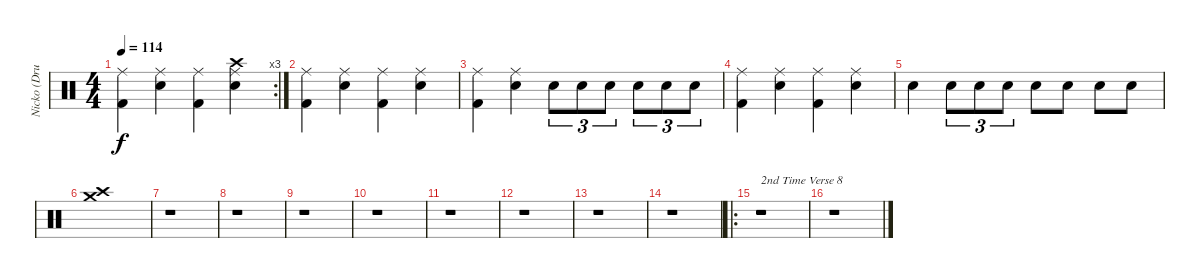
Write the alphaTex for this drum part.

\track ("Nicko (Drums)" "Nicko (Dru") {instrument percussion}
\staff {score}
\articulation defaults
\rc 3
\ts (4 4)
\tempo 114
\clef neutral
\ks c
("Ride (middle)" "Kick (hit) 2").4{dy f} ("Ride (middle)" "Snare (hit) 2").4 ("Ride (middle)" "Kick (hit) 2").4 ("Ride (middle)" "Snare (hit) 2" "Crash high (hit)").4 |
("Ride (middle)" "Kick (hit) 2").4 ("Ride (middle)" "Snare (hit) 2").4 ("Ride (middle)" "Kick (hit) 2").4 ("Ride (middle)" "Snare (hit) 2").4 |
("Ride (middle)" "Kick (hit) 2").4 ("Ride (middle)" "Snare (hit) 2").4 "Snare (hit) 2".8{tu (3 2)} "Snare (hit) 2".8{tu (3 2)} "Snare (hit) 2".8{tu (3 2)} "Snare (hit) 2".8{tu (3 2)} "Snare (hit) 2".8{tu (3 2)} "Snare (hit) 2".8{tu (3 2)} |
("Ride (middle)" "Kick (hit) 2").4 ("Ride (middle)" "Snare (hit) 2").4 ("Ride (middle)" "Kick (hit) 2").4 ("Ride (middle)" "Snare (hit) 2").4 |
"Snare (hit) 2".4 "Snare (hit) 2".8{tu (3 2)} "Snare (hit) 2".8{tu (3 2)} "Snare (hit) 2".8{tu (3 2)} "Snare (hit) 2".8 "Snare (hit) 2".8 "Snare (hit) 2".8 "Snare (hit) 2".8 |
("Crash high (hit)" "Crash medium (hit)").1 |
r.1 |
r.1 |
r.1 |
r.1 |
r.1 |
r.1 |
r.1 |
r.1 |
\ro
r.1{txt "2nd Time Verse 8"} |
r.1
